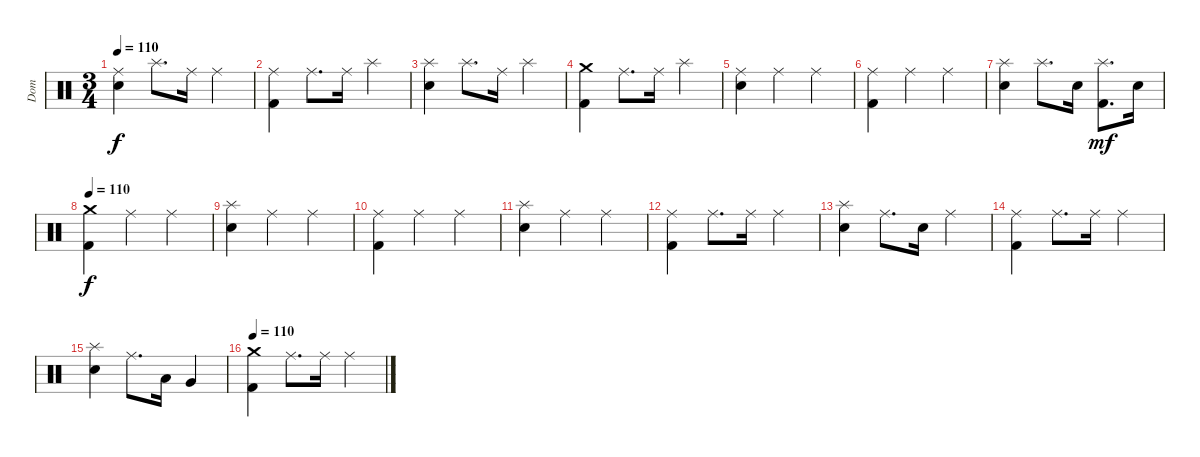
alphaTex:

\track ("Dom" "Dom") {instrument percussion}
\staff {score}
\articulation defaults
\ts (3 4)
\tempo 110
\clef neutral
\ks c
("Ride (middle)" "Snare (hit) 2").4{dy f} "Splash (hit)".8{d} "Ride (middle)".16 "Ride (middle)".4 |
("Ride (middle)" "Kick (hit) 2").4 "Ride (middle)".8{d} "Ride (middle)".16 "Splash (hit)".4 |
("Splash (hit)" "Snare (hit) 2").4 "Splash (hit)".8{d} "Ride (middle)".16 "Splash (hit)".4 |
("Crash medium (hit)" "Kick (hit) 2").4 "Ride (middle)".8{d} "Ride (middle)".16 "Splash (hit)".4 |
("Ride (middle)" "Snare (hit) 2").4 "Ride (middle)".4 "Ride (middle)".4 |
("Ride (middle)" "Kick (hit) 2").4 "Ride (middle)".4 "Ride (middle)".4 |
("Splash (hit)" "Snare (hit) 2").4 "Splash (hit)".8{d} "Snare (hit) 2".16 ("Splash (hit)" "Kick (hit) 2").8{d dy mf} "Snare (hit) 2".16 |
\tempo 110
("Crash medium (hit)" "Kick (hit) 2").4{dy f} "Ride (middle)".4 "Ride (middle)".4 |
("Splash (hit)" "Snare (hit) 2").4 "Ride (middle)".4 "Ride (middle)".4 |
("Ride (middle)" "Kick (hit) 2").4 "Ride (middle)".4 "Ride (middle)".4 |
("Splash (hit)" "Snare (hit) 2").4 "Ride (middle)".4 "Ride (middle)".4 |
("Ride (middle)" "Kick (hit) 2").4 "Ride (middle)".8{d} "Ride (middle)".16 "Ride (middle)".4 |
("Splash (hit)" "Snare (hit) 2").4 "Ride (middle)".8{d} "Snare (hit) 2".16 "Ride (middle)".4 |
("Ride (middle)" "Kick (hit) 2").4 "Ride (middle)".8{d} "Ride (middle)".16 "Ride (middle)".4 |
("Splash (hit)" "Snare (hit) 2").4 "Ride (middle)".8{d} "Low Tom (hit)".16 "Very Low Tom (hit)".4 |
\tempo 110
("Crash medium (hit)" "Kick (hit) 2").4 "Ride (middle)".8{d} "Ride (middle)".16 "Ride (middle)".4
